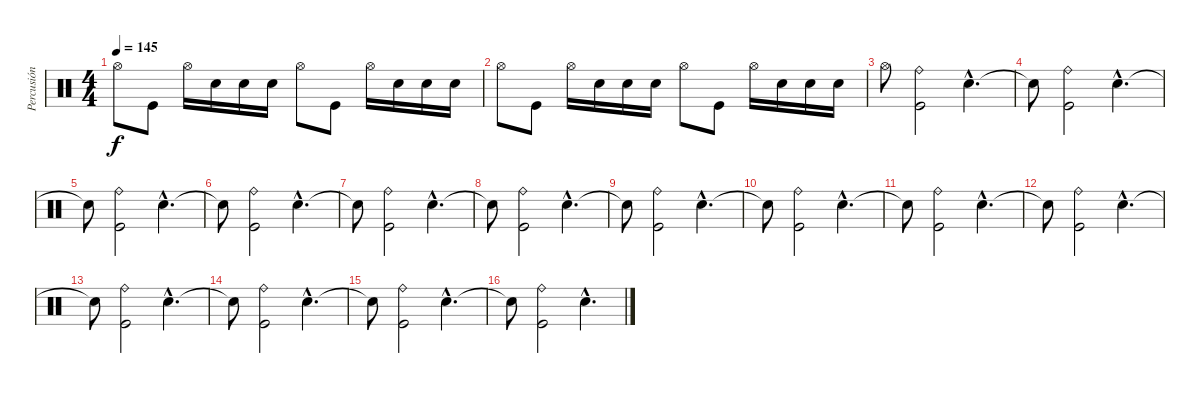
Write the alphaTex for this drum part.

\track ("Percusión" "Percusión") {instrument percussion}
\staff {score}
\articulation defaults
\ts (4 4)
\tempo 145
\clef neutral
\ks c "Hi-Hat (open)".8{dy f} "Kick (hit)".8 "Hi-Hat (open)".16 "Snare (hit) 2".16 "Snare (hit) 2".16 "Snare (hit) 2".16 "Hi-Hat (open)".8 "Kick (hit)".8 "Hi-Hat (open)".16 "Snare (hit) 2".16 "Snare (hit) 2".16 "Snare (hit) 2".16
|
"Hi-Hat (open)".8 "Kick (hit)".8 "Hi-Hat (open)".16 "Snare (hit) 2".16 "Snare (hit) 2".16 "Snare (hit) 2".16 "Hi-Hat (open)".8 "Kick (hit)".8 "Hi-Hat (open)".16 "Snare (hit) 2".16 "Snare (hit) 2".16 "Snare (hit) 2".16 |
"Hi-Hat (open)".8 ("Ride (bell)" "Kick (hit)").2 "Snare (hit) 2"{hac}.4{d} |
"Snare (hit)"{t}.8 ("Ride (bell)" "Kick (hit)").2 "Snare (hit) 2"{hac}.4{d} |
"Snare (hit)"{t}.8 ("Ride (bell)" "Kick (hit)").2 "Snare (hit) 2"{hac}.4{d} |
"Snare (hit)"{t}.8 ("Ride (bell)" "Kick (hit)").2 "Snare (hit) 2"{hac}.4{d} |
"Snare (hit)"{t}.8 ("Ride (bell)" "Kick (hit)").2 "Snare (hit) 2"{hac}.4{d} |
"Snare (hit)"{t}.8 ("Ride (bell)" "Kick (hit)").2 "Snare (hit) 2"{hac}.4{d} |
"Snare (hit)"{t}.8 ("Ride (bell)" "Kick (hit)").2 "Snare (hit) 2"{hac}.4{d} |
"Snare (hit)"{t}.8 ("Ride (bell)" "Kick (hit)").2 "Snare (hit) 2"{hac}.4{d} |
"Snare (hit)"{t}.8 ("Ride (bell)" "Kick (hit)").2 "Snare (hit) 2"{hac}.4{d} |
"Snare (hit)"{t}.8 ("Ride (bell)" "Kick (hit)").2 "Snare (hit) 2"{hac}.4{d} |
"Snare (hit)"{t}.8 ("Ride (bell)" "Kick (hit)").2 "Snare (hit) 2"{hac}.4{d} |
"Snare (hit)"{t}.8 ("Ride (bell)" "Kick (hit)").2 "Snare (hit) 2"{hac}.4{d} |
"Snare (hit)"{t}.8 ("Ride (bell)" "Kick (hit)").2 "Snare (hit) 2"{hac}.4{d} |
"Snare (hit)"{t}.8 ("Ride (bell)" "Kick (hit)").2 "Snare (hit) 2"{hac}.4{d}
